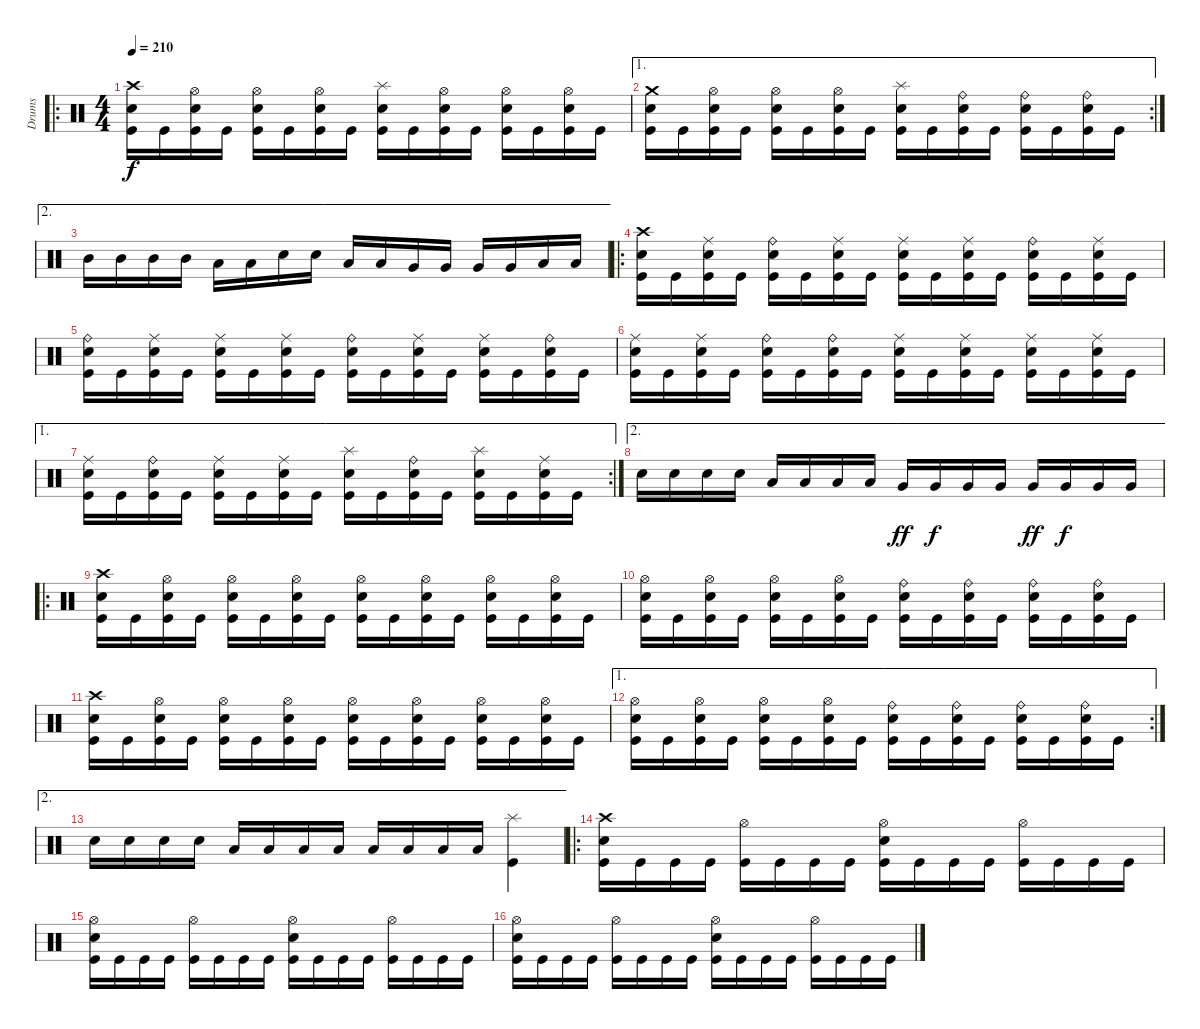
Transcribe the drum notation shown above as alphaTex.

\track ("Drums" "Drums") {instrument percussion}
\staff {score}
\articulation defaults
\ro
\ts (4 4)
\tempo 210
\clef neutral
\ks c
("Crash high (hit)" "Electric Snare (hit)" "Kick (hit)").16{dy f} "Kick (hit)".16 ("Hi-Hat (open)" "Electric Snare (hit)" "Kick (hit)").16 "Kick (hit)".16 ("Hi-Hat (open)" "Electric Snare (hit)" "Kick (hit)").16 "Kick (hit)".16 ("Hi-Hat (open)" "Electric Snare (hit)" "Kick (hit)").16 "Kick (hit)".16 ("Splash (hit)" "Electric Snare (hit)" "Kick (hit)").16 "Kick (hit)".16 ("Hi-Hat (open)" "Electric Snare (hit)" "Kick (hit)").16 "Kick (hit)".16 ("Hi-Hat (open)" "Electric Snare (hit)" "Kick (hit)").16 "Kick (hit)".16 ("Hi-Hat (open)" "Electric Snare (hit)" "Kick (hit)").16 "Kick (hit)".16 |
\ae 1
\rc 2
("Crash medium (hit)" "Electric Snare (hit)" "Kick (hit)").16 "Kick (hit)".16 ("Hi-Hat (open)" "Electric Snare (hit)" "Kick (hit)").16 "Kick (hit)".16 ("Hi-Hat (open)" "Electric Snare (hit)" "Kick (hit)").16 "Kick (hit)".16 ("Hi-Hat (open)" "Electric Snare (hit)" "Kick (hit)").16 "Kick (hit)".16 ("Splash (hit)" "Electric Snare (hit)" "Kick (hit)").16 "Kick (hit)".16 ("Ride (bell)" "Electric Snare (hit)" "Kick (hit)").16 "Kick (hit)".16 ("Ride (bell)" "Electric Snare (hit)" "Kick (hit)").16 "Kick (hit)".16 ("Ride (bell)" "Electric Snare (hit)" "Kick (hit)").16 "Kick (hit)".16 |
\ae 2 "Mid Tom (hit)".16 "Mid Tom (hit)".16 "Mid Tom (hit)".16 "Mid Tom (hit)".16 "Low Tom (hit)".16 "Low Tom (hit)".16 "Electric Snare (hit)".16 "Electric Snare (hit)".16 "Low Tom (hit)".16 "Low Tom (hit)".16 "Very Low Tom (hit)".16 "Very Low Tom (hit)".16 "Very Low Tom (hit)".16 "Very Low Tom (hit)".16 "Low Floor Tom (hit)".16 "Low Floor Tom (hit)".16
|
\ro
("Crash high (hit)" "Electric Snare (hit)" "Kick (hit)").16 "Kick (hit)".16 ("Ride (middle)" "Electric Snare (hit)" "Kick (hit)").16 "Kick (hit)".16 ("Ride (bell)" "Electric Snare (hit)" "Kick (hit)").16 "Kick (hit)".16 ("Ride (middle)" "Electric Snare (hit)" "Kick (hit)").16 "Kick (hit)".16 ("Ride (middle)" "Electric Snare (hit)" "Kick (hit)").16 "Kick (hit)".16 ("Ride (middle)" "Electric Snare (hit)" "Kick (hit)").16 "Kick (hit)".16 ("Ride (bell)" "Electric Snare (hit)" "Kick (hit)").16 "Kick (hit)".16 ("Ride (middle)" "Electric Snare (hit)" "Kick (hit)").16 "Kick (hit)".16 |
("Ride (bell)" "Electric Snare (hit)" "Kick (hit)").16 "Kick (hit)".16 ("Ride (middle)" "Electric Snare (hit)" "Kick (hit)").16 "Kick (hit)".16 ("Ride (middle)" "Electric Snare (hit)" "Kick (hit)").16 "Kick (hit)".16 ("Ride (middle)" "Electric Snare (hit)" "Kick (hit)").16 "Kick (hit)".16 ("Ride (bell)" "Electric Snare (hit)" "Kick (hit)").16 "Kick (hit)".16 ("Ride (middle)" "Electric Snare (hit)" "Kick (hit)").16 "Kick (hit)".16 ("Ride (middle)" "Electric Snare (hit)" "Kick (hit)").16 "Kick (hit)".16 ("Ride (bell)" "Electric Snare (hit)" "Kick (hit)").16 "Kick (hit)".16 |
("Ride (middle)" "Electric Snare (hit)" "Kick (hit)").16 "Kick (hit)".16 ("Ride (middle)" "Electric Snare (hit)" "Kick (hit)").16 "Kick (hit)".16 ("Ride (bell)" "Electric Snare (hit)" "Kick (hit)").16 "Kick (hit)".16 ("Ride (bell)" "Electric Snare (hit)" "Kick (hit)").16 "Kick (hit)".16 ("Ride (middle)" "Electric Snare (hit)" "Kick (hit)").16 "Kick (hit)".16 ("Ride (middle)" "Electric Snare (hit)" "Kick (hit)").16 "Kick (hit)".16 ("Ride (middle)" "Electric Snare (hit)" "Kick (hit)").16 "Kick (hit)".16 ("Ride (middle)" "Electric Snare (hit)" "Kick (hit)").16 "Kick (hit)".16 |
\ae 1
\rc 2
("Ride (middle)" "Electric Snare (hit)" "Kick (hit)").16 "Kick (hit)".16 ("Ride (bell)" "Electric Snare (hit)" "Kick (hit)").16 "Kick (hit)".16 ("Ride (middle)" "Electric Snare (hit)" "Kick (hit)").16 "Kick (hit)".16 ("Ride (middle)" "Electric Snare (hit)" "Kick (hit)").16 "Kick (hit)".16 ("Splash (hit)" "Electric Snare (hit)" "Kick (hit)").16 "Kick (hit)".16 ("Ride (bell)" "Electric Snare (hit)" "Kick (hit)").16 "Kick (hit)".16 ("Splash (hit)" "Electric Snare (hit)" "Kick (hit)").16 "Kick (hit)".16 ("Ride (middle)" "Electric Snare (hit)" "Kick (hit)").16 "Kick (hit)".16 |
\ae 2 "Electric Snare (hit)".16 "Electric Snare (hit)".16 "Electric Snare (hit)".16 "Electric Snare (hit)".16 "Low Tom (hit)".16 "Low Tom (hit)".16 "Low Tom (hit)".16 "Low Tom (hit)".16 "Very Low Tom (hit)".16{dy ff} "Very Low Tom (hit)".16{dy f} "Very Low Tom (hit)".16 "Very Low Tom (hit)".16 "Very Low Tom (hit)".16{dy ff} "Very Low Tom (hit)".16{dy f} "Very Low Tom (hit)".16 "Very Low Tom (hit)".16
|
\ro
("Crash high (hit)" "Electric Snare (hit)" "Kick (hit)").16 "Kick (hit)".16 ("Hi-Hat (open)" "Electric Snare (hit)" "Kick (hit)").16 "Kick (hit)".16 ("Hi-Hat (open)" "Electric Snare (hit)" "Kick (hit)").16 "Kick (hit)".16 ("Hi-Hat (open)" "Electric Snare (hit)" "Kick (hit)").16 "Kick (hit)".16 ("Hi-Hat (open)" "Electric Snare (hit)" "Kick (hit)").16 "Kick (hit)".16 ("Hi-Hat (open)" "Electric Snare (hit)" "Kick (hit)").16 "Kick (hit)".16 ("Hi-Hat (open)" "Electric Snare (hit)" "Kick (hit)").16 "Kick (hit)".16 ("Hi-Hat (open)" "Electric Snare (hit)" "Kick (hit)").16 "Kick (hit)".16 |
("Hi-Hat (open)" "Electric Snare (hit)" "Kick (hit)").16 "Kick (hit)".16 ("Hi-Hat (open)" "Electric Snare (hit)" "Kick (hit)").16 "Kick (hit)".16 ("Hi-Hat (open)" "Electric Snare (hit)" "Kick (hit)").16 "Kick (hit)".16 ("Hi-Hat (open)" "Electric Snare (hit)" "Kick (hit)").16 "Kick (hit)".16 ("Ride (bell)" "Electric Snare (hit)" "Kick (hit)").16 "Kick (hit)".16 ("Ride (bell)" "Electric Snare (hit)" "Kick (hit)").16 "Kick (hit)".16 ("Ride (bell)" "Electric Snare (hit)" "Kick (hit)").16 "Kick (hit)".16 ("Ride (bell)" "Electric Snare (hit)" "Kick (hit)").16 "Kick (hit)".16 |
("Crash high (hit)" "Electric Snare (hit)" "Kick (hit)").16 "Kick (hit)".16 ("Hi-Hat (open)" "Electric Snare (hit)" "Kick (hit)").16 "Kick (hit)".16 ("Hi-Hat (open)" "Electric Snare (hit)" "Kick (hit)").16 "Kick (hit)".16 ("Hi-Hat (open)" "Electric Snare (hit)" "Kick (hit)").16 "Kick (hit)".16 ("Hi-Hat (open)" "Electric Snare (hit)" "Kick (hit)").16 "Kick (hit)".16 ("Hi-Hat (open)" "Electric Snare (hit)" "Kick (hit)").16 "Kick (hit)".16 ("Hi-Hat (open)" "Electric Snare (hit)" "Kick (hit)").16 "Kick (hit)".16 ("Hi-Hat (open)" "Electric Snare (hit)" "Kick (hit)").16 "Kick (hit)".16 |
\ae 1
\rc 2
("Hi-Hat (open)" "Electric Snare (hit)" "Kick (hit)").16 "Kick (hit)".16 ("Hi-Hat (open)" "Electric Snare (hit)" "Kick (hit)").16 "Kick (hit)".16 ("Hi-Hat (open)" "Electric Snare (hit)" "Kick (hit)").16 "Kick (hit)".16 ("Hi-Hat (open)" "Electric Snare (hit)" "Kick (hit)").16 "Kick (hit)".16 ("Ride (bell)" "Electric Snare (hit)" "Kick (hit)").16 "Kick (hit)".16 ("Ride (bell)" "Electric Snare (hit)" "Kick (hit)").16 "Kick (hit)".16 ("Ride (bell)" "Electric Snare (hit)" "Kick (hit)").16 "Kick (hit)".16 ("Ride (bell)" "Electric Snare (hit)" "Kick (hit)").16 "Kick (hit)".16 |
\ae 2 "Electric Snare (hit)".16 "Electric Snare (hit)".16 "Electric Snare (hit)".16 "Electric Snare (hit)".16 "Low Tom (hit)".16 "Low Tom (hit)".16 "Low Tom (hit)".16 "Low Tom (hit)".16 "Low Tom (hit)".16 "Low Tom (hit)".16 "Low Tom (hit)".16 "Low Tom (hit)".16
("Splash (hit)" "Kick (hit)").4 |
\ro
("Crash high (hit)" "Electric Snare (hit)" "Kick (hit)").16 "Kick (hit)".16 "Kick (hit)".16 "Kick (hit)".16 ("Hi-Hat (open)" "Kick (hit)").16 "Kick (hit)".16 "Kick (hit)".16 "Kick (hit)".16 ("Hi-Hat (open)" "Electric Snare (hit)" "Kick (hit)").16 "Kick (hit)".16 "Kick (hit)".16 "Kick (hit)".16 ("Hi-Hat (open)" "Kick (hit)").16 "Kick (hit)".16 "Kick (hit)".16 "Kick (hit)".16 |
("Hi-Hat (open)" "Electric Snare (hit)" "Kick (hit)").16 "Kick (hit)".16 "Kick (hit)".16 "Kick (hit)".16 ("Hi-Hat (open)" "Kick (hit)").16 "Kick (hit)".16 "Kick (hit)".16 "Kick (hit)".16 ("Hi-Hat (open)" "Electric Snare (hit)" "Kick (hit)").16 "Kick (hit)".16 "Kick (hit)".16 "Kick (hit)".16 ("Hi-Hat (open)" "Kick (hit)").16 "Kick (hit)".16 "Kick (hit)".16 "Kick (hit)".16 |
("Hi-Hat (open)" "Electric Snare (hit)" "Kick (hit)").16 "Kick (hit)".16 "Kick (hit)".16 "Kick (hit)".16 ("Hi-Hat (open)" "Kick (hit)").16 "Kick (hit)".16 "Kick (hit)".16 "Kick (hit)".16 ("Hi-Hat (open)" "Electric Snare (hit)" "Kick (hit)").16 "Kick (hit)".16 "Kick (hit)".16 "Kick (hit)".16 ("Hi-Hat (open)" "Kick (hit)").16 "Kick (hit)".16 "Kick (hit)".16 "Kick (hit)".16
